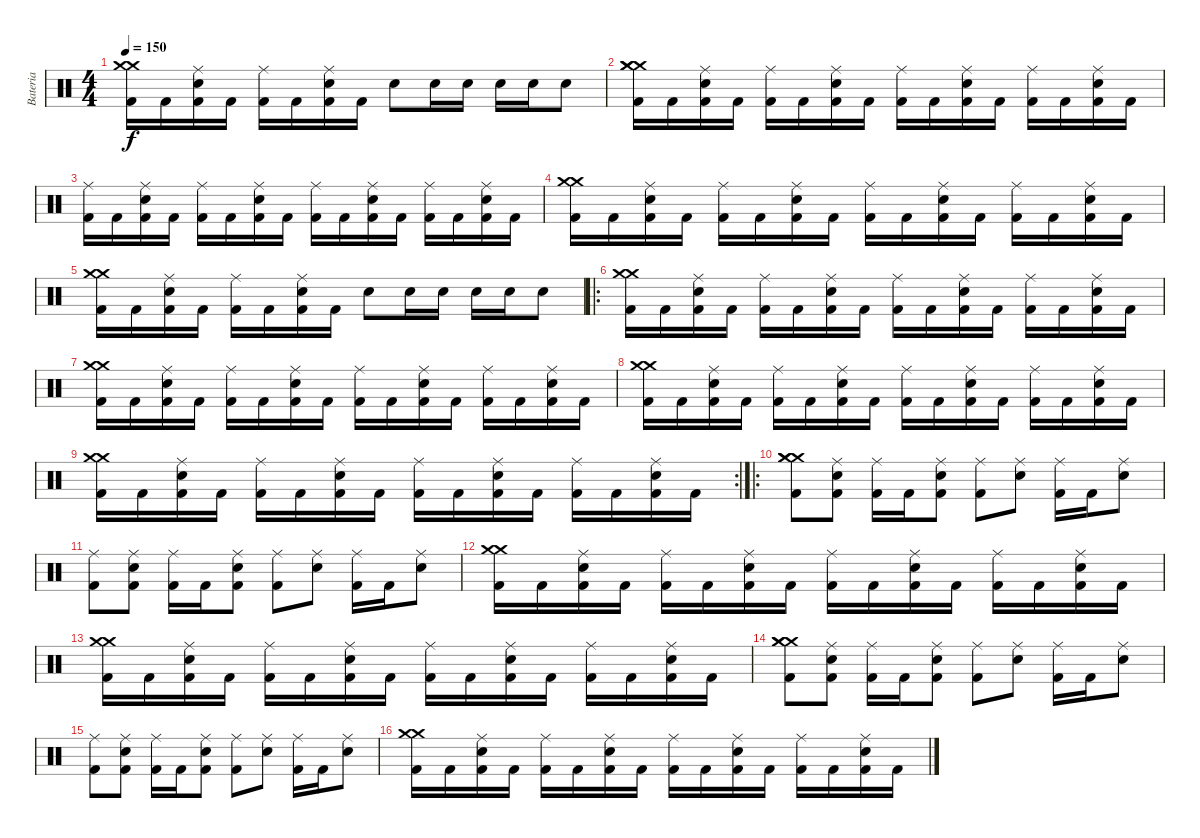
\track ("Bateria" "Bateria") {instrument percussion}
\staff {score}
\articulation defaults
\ts (4 4)
\tempo 150
\clef neutral
\ks c
("Crash medium (hit)" "Crash medium (hit)" "Kick (hit) 2").16{dy f} "Kick (hit) 2".16 ("Ride (middle)" "Snare (hit) 2" "Kick (hit) 2").16 "Kick (hit) 2".16 ("Ride (middle)" "Kick (hit) 2").16 "Kick (hit) 2".16 ("Ride (middle)" "Snare (hit) 2" "Kick (hit) 2").16 "Kick (hit) 2".16 "Snare (hit) 2".8 "Snare (hit) 2".16 "Snare (hit) 2".16 "Snare (hit) 2".16 "Snare (hit) 2".16 "Snare (hit) 2".8 |
("Crash medium (hit)" "Crash medium (hit)" "Crash medium (hit)" "Kick (hit) 2").16 "Kick (hit) 2".16 ("Ride (middle)" "Snare (hit) 2" "Kick (hit) 2").16 "Kick (hit) 2".16 ("Ride (middle)" "Kick (hit) 2").16 "Kick (hit) 2".16 ("Ride (middle)" "Snare (hit) 2" "Kick (hit) 2").16 "Kick (hit) 2".16 ("Ride (middle)" "Kick (hit) 2").16 "Kick (hit) 2".16 ("Ride (middle)" "Snare (hit) 2" "Kick (hit) 2").16 "Kick (hit) 2".16 ("Ride (middle)" "Kick (hit) 2").16 "Kick (hit) 2".16 ("Ride (middle)" "Snare (hit) 2" "Kick (hit) 2").16 "Kick (hit) 2".16 |
("Ride (middle)" "Kick (hit) 2").16 "Kick (hit) 2".16 ("Ride (middle)" "Snare (hit) 2" "Kick (hit) 2").16 "Kick (hit) 2".16 ("Ride (middle)" "Kick (hit) 2").16 "Kick (hit) 2".16 ("Ride (middle)" "Snare (hit) 2" "Kick (hit) 2").16 "Kick (hit) 2".16 ("Ride (middle)" "Kick (hit) 2").16 "Kick (hit) 2".16 ("Ride (middle)" "Snare (hit) 2" "Kick (hit) 2").16 "Kick (hit) 2".16 ("Ride (middle)" "Kick (hit) 2").16 "Kick (hit) 2".16 ("Ride (middle)" "Snare (hit) 2" "Kick (hit) 2").16 "Kick (hit) 2".16 |
("Crash medium (hit)" "Crash medium (hit)" "Kick (hit) 2").16 "Kick (hit) 2".16 ("Ride (middle)" "Snare (hit) 2" "Kick (hit) 2").16 "Kick (hit) 2".16 ("Ride (middle)" "Kick (hit) 2").16 "Kick (hit) 2".16 ("Ride (middle)" "Snare (hit) 2" "Kick (hit) 2").16 "Kick (hit) 2".16 ("Ride (middle)" "Kick (hit) 2").16 "Kick (hit) 2".16 ("Ride (middle)" "Snare (hit) 2" "Kick (hit) 2").16 "Kick (hit) 2".16 ("Ride (middle)" "Kick (hit) 2").16 "Kick (hit) 2".16 ("Ride (middle)" "Snare (hit) 2" "Kick (hit) 2").16 "Kick (hit) 2".16 |
("Crash medium (hit)" "Crash medium (hit)" "Kick (hit) 2").16 "Kick (hit) 2".16 ("Ride (middle)" "Snare (hit) 2" "Kick (hit) 2").16 "Kick (hit) 2".16 ("Ride (middle)" "Kick (hit) 2").16 "Kick (hit) 2".16 ("Ride (middle)" "Snare (hit) 2" "Kick (hit) 2").16 "Kick (hit) 2".16 "Snare (hit) 2".8 "Snare (hit) 2".16 "Snare (hit) 2".16 "Snare (hit) 2".16 "Snare (hit) 2".16 "Snare (hit) 2".8 |
\ro
("Crash medium (hit)" "Crash medium (hit)" "Kick (hit) 2").16 "Kick (hit) 2".16 ("Ride (middle)" "Snare (hit) 2" "Kick (hit) 2").16 "Kick (hit) 2".16 ("Ride (middle)" "Kick (hit) 2").16 "Kick (hit) 2".16 ("Ride (middle)" "Snare (hit) 2" "Kick (hit) 2").16 "Kick (hit) 2".16 ("Ride (middle)" "Kick (hit) 2").16 "Kick (hit) 2".16 ("Ride (middle)" "Snare (hit) 2" "Kick (hit) 2").16 "Kick (hit) 2".16 ("Ride (middle)" "Kick (hit) 2").16 "Kick (hit) 2".16 ("Ride (middle)" "Snare (hit) 2" "Kick (hit) 2").16 "Kick (hit) 2".16 |
("Crash medium (hit)" "Crash medium (hit)" "Kick (hit) 2").16 "Kick (hit) 2".16 ("Ride (middle)" "Snare (hit) 2" "Kick (hit) 2").16 "Kick (hit) 2".16 ("Ride (middle)" "Kick (hit) 2").16 "Kick (hit) 2".16 ("Ride (middle)" "Snare (hit) 2" "Kick (hit) 2").16 "Kick (hit) 2".16 ("Ride (middle)" "Kick (hit) 2").16 "Kick (hit) 2".16 ("Ride (middle)" "Snare (hit) 2" "Kick (hit) 2").16 "Kick (hit) 2".16 ("Ride (middle)" "Kick (hit) 2").16 "Kick (hit) 2".16 ("Ride (middle)" "Snare (hit) 2" "Kick (hit) 2").16 "Kick (hit) 2".16 |
("Crash medium (hit)" "Crash medium (hit)" "Kick (hit) 2").16 "Kick (hit) 2".16 ("Ride (middle)" "Snare (hit) 2" "Kick (hit) 2").16 "Kick (hit) 2".16 ("Ride (middle)" "Kick (hit) 2").16 "Kick (hit) 2".16 ("Ride (middle)" "Snare (hit) 2" "Kick (hit) 2").16 "Kick (hit) 2".16 ("Ride (middle)" "Kick (hit) 2").16 "Kick (hit) 2".16 ("Ride (middle)" "Snare (hit) 2" "Kick (hit) 2").16 "Kick (hit) 2".16 ("Ride (middle)" "Kick (hit) 2").16 "Kick (hit) 2".16 ("Ride (middle)" "Snare (hit) 2" "Kick (hit) 2").16 "Kick (hit) 2".16 |
\rc 2
("Crash medium (hit)" "Crash medium (hit)" "Kick (hit) 2").16 "Kick (hit) 2".16 ("Ride (middle)" "Snare (hit) 2" "Kick (hit) 2").16 "Kick (hit) 2".16 ("Ride (middle)" "Kick (hit) 2").16 "Kick (hit) 2".16 ("Ride (middle)" "Snare (hit) 2" "Kick (hit) 2").16 "Kick (hit) 2".16 ("Ride (middle)" "Kick (hit) 2").16 "Kick (hit) 2".16 ("Ride (middle)" "Snare (hit) 2" "Kick (hit) 2").16 "Kick (hit) 2".16 ("Ride (middle)" "Kick (hit) 2").16 "Kick (hit) 2".16 ("Ride (middle)" "Snare (hit) 2" "Kick (hit) 2").16 "Kick (hit) 2".16 |
\ro
("Crash medium (hit)" "Crash medium (hit)" "Crash medium (hit)" "Kick (hit) 2").8 ("Ride (middle)" "Snare (hit) 2" "Kick (hit) 2").8 ("Ride (middle)" "Kick (hit) 2").16 "Kick (hit) 2".16 ("Ride (middle)" "Snare (hit) 2" "Kick (hit) 2").8 ("Ride (middle)" "Kick (hit) 2").8 ("Ride (middle)" "Snare (hit) 2").8 ("Ride (middle)" "Kick (hit) 2").16 "Kick (hit) 2".16 ("Ride (middle)" "Snare (hit) 2").8 |
("Ride (middle)" "Kick (hit) 2").8 ("Ride (middle)" "Snare (hit) 2" "Kick (hit) 2").8 ("Ride (middle)" "Kick (hit) 2").16 "Kick (hit) 2".16 ("Ride (middle)" "Snare (hit) 2" "Kick (hit) 2").8 ("Ride (middle)" "Kick (hit) 2").8 ("Ride (middle)" "Snare (hit) 2").8 ("Ride (middle)" "Kick (hit) 2").16 "Kick (hit) 2".16 ("Ride (middle)" "Snare (hit) 2").8 |
("Crash medium (hit)" "Crash medium (hit)" "Kick (hit) 2").16 "Kick (hit) 2".16 ("Ride (middle)" "Snare (hit) 2" "Kick (hit) 2").16 "Kick (hit) 2".16 ("Ride (middle)" "Kick (hit) 2").16 "Kick (hit) 2".16 ("Ride (middle)" "Snare (hit) 2" "Kick (hit) 2").16 "Kick (hit) 2".16 ("Ride (middle)" "Kick (hit) 2").16 "Kick (hit) 2".16 ("Ride (middle)" "Snare (hit) 2" "Kick (hit) 2").16 "Kick (hit) 2".16 ("Ride (middle)" "Kick (hit) 2").16 "Kick (hit) 2".16 ("Ride (middle)" "Snare (hit) 2" "Kick (hit) 2").16 "Kick (hit) 2".16 |
("Crash medium (hit)" "Crash medium (hit)" "Kick (hit) 2").16 "Kick (hit) 2".16 ("Ride (middle)" "Snare (hit) 2" "Kick (hit) 2").16 "Kick (hit) 2".16 ("Ride (middle)" "Kick (hit) 2").16 "Kick (hit) 2".16 ("Ride (middle)" "Snare (hit) 2" "Kick (hit) 2").16 "Kick (hit) 2".16 ("Ride (middle)" "Kick (hit) 2").16 "Kick (hit) 2".16 ("Ride (middle)" "Snare (hit) 2" "Kick (hit) 2").16 "Kick (hit) 2".16 ("Ride (middle)" "Kick (hit) 2").16 "Kick (hit) 2".16 ("Ride (middle)" "Snare (hit) 2" "Kick (hit) 2").16 "Kick (hit) 2".16 |
("Crash medium (hit)" "Crash medium (hit)" "Crash medium (hit)" "Kick (hit) 2").8 ("Ride (middle)" "Snare (hit) 2" "Kick (hit) 2").8 ("Ride (middle)" "Kick (hit) 2").16 "Kick (hit) 2".16 ("Ride (middle)" "Snare (hit) 2" "Kick (hit) 2").8 ("Ride (middle)" "Kick (hit) 2").8 ("Ride (middle)" "Snare (hit) 2").8 ("Ride (middle)" "Kick (hit) 2").16 "Kick (hit) 2".16 ("Ride (middle)" "Snare (hit) 2").8 |
("Ride (middle)" "Kick (hit) 2").8 ("Ride (middle)" "Snare (hit) 2" "Kick (hit) 2").8 ("Ride (middle)" "Kick (hit) 2").16 "Kick (hit) 2".16 ("Ride (middle)" "Snare (hit) 2" "Kick (hit) 2").8 ("Ride (middle)" "Kick (hit) 2").8 ("Ride (middle)" "Snare (hit) 2").8 ("Ride (middle)" "Kick (hit) 2").16 "Kick (hit) 2".16 ("Ride (middle)" "Snare (hit) 2").8 |
("Crash medium (hit)" "Crash medium (hit)" "Kick (hit) 2").16 "Kick (hit) 2".16 ("Ride (middle)" "Snare (hit) 2" "Kick (hit) 2").16 "Kick (hit) 2".16 ("Ride (middle)" "Kick (hit) 2").16 "Kick (hit) 2".16 ("Ride (middle)" "Snare (hit) 2" "Kick (hit) 2").16 "Kick (hit) 2".16 ("Ride (middle)" "Kick (hit) 2").16 "Kick (hit) 2".16 ("Ride (middle)" "Snare (hit) 2" "Kick (hit) 2").16 "Kick (hit) 2".16 ("Ride (middle)" "Kick (hit) 2").16 "Kick (hit) 2".16 ("Ride (middle)" "Snare (hit) 2" "Kick (hit) 2").16 "Kick (hit) 2".16
